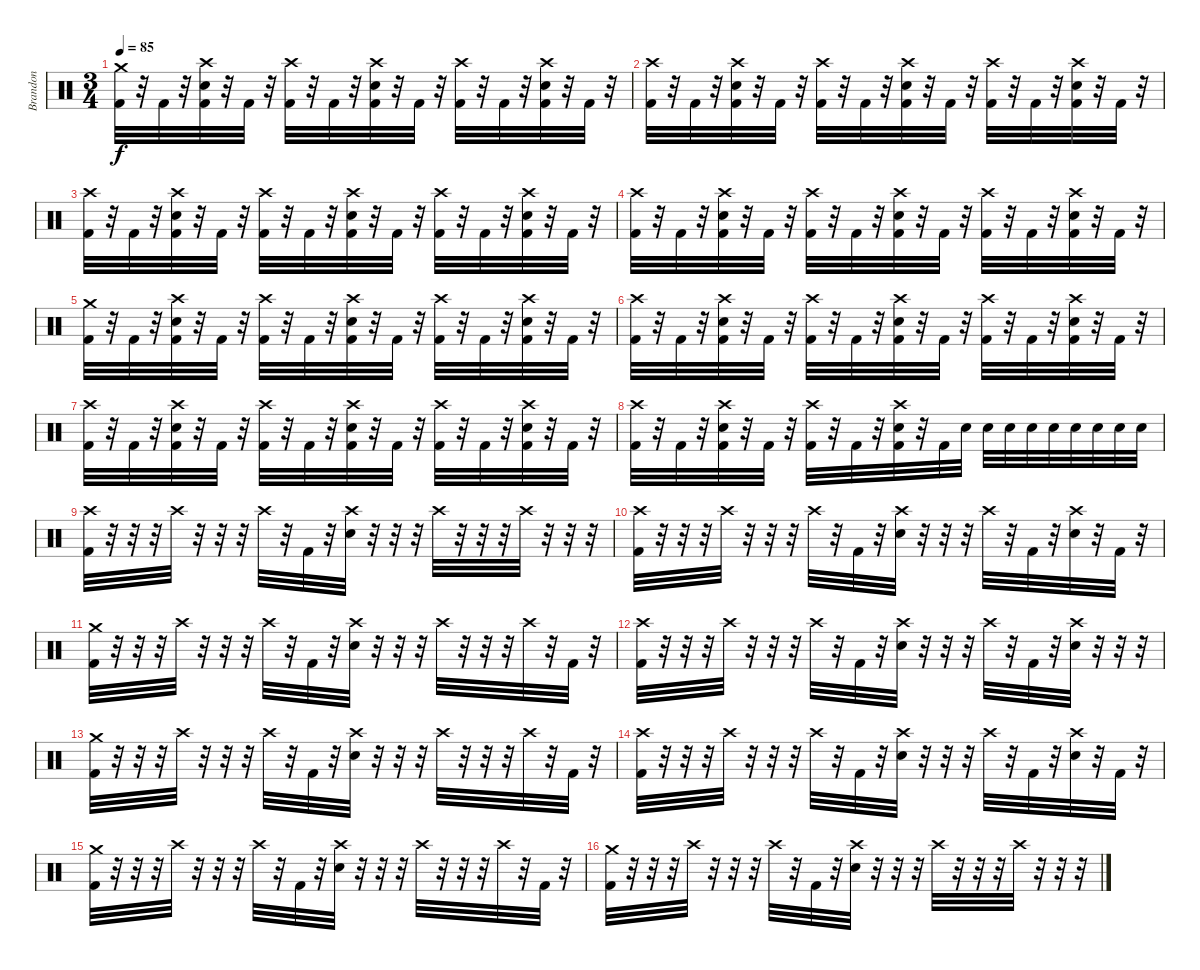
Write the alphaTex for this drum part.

\track ("Brandon" "Brandon") {instrument percussion}
\staff {score}
\articulation defaults
\ts (3 4)
\tempo 85
\clef neutral
\ks c
("Crash medium (hit)" "Kick (hit) 2").32{dy f} r.32 "Kick (hit) 2".32 r.32 ("Crash high (hit)" "Electric Snare (hit)" "Kick (hit) 2").32 r.32 "Kick (hit) 2".32 r.32 ("Crash high (hit)" "Kick (hit) 2").32 r.32 "Kick (hit) 2".32 r.32 ("Crash high (hit)" "Electric Snare (hit)" "Kick (hit) 2").32 r.32 "Kick (hit) 2".32 r.32 ("Crash high (hit)" "Kick (hit) 2").32 r.32 "Kick (hit) 2".32 r.32 ("Crash high (hit)" "Electric Snare (hit)" "Kick (hit) 2").32 r.32 "Kick (hit) 2".32 r.32 |
("Crash high (hit)" "Kick (hit) 2").32 r.32 "Kick (hit) 2".32 r.32 ("Crash high (hit)" "Electric Snare (hit)" "Kick (hit) 2").32 r.32 "Kick (hit) 2".32 r.32 ("Crash high (hit)" "Kick (hit) 2").32 r.32 "Kick (hit) 2".32 r.32 ("Crash high (hit)" "Electric Snare (hit)" "Kick (hit) 2").32 r.32 "Kick (hit) 2".32 r.32 ("Crash high (hit)" "Kick (hit) 2").32 r.32 "Kick (hit) 2".32 r.32 ("Crash high (hit)" "Electric Snare (hit)" "Kick (hit) 2").32 r.32 "Kick (hit) 2".32 r.32 |
("Crash high (hit)" "Kick (hit) 2").32 r.32 "Kick (hit) 2".32 r.32 ("Crash high (hit)" "Electric Snare (hit)" "Kick (hit) 2").32 r.32 "Kick (hit) 2".32 r.32 ("Crash high (hit)" "Kick (hit) 2").32 r.32 "Kick (hit) 2".32 r.32 ("Crash high (hit)" "Electric Snare (hit)" "Kick (hit) 2").32 r.32 "Kick (hit) 2".32 r.32 ("Crash high (hit)" "Kick (hit) 2").32 r.32 "Kick (hit) 2".32 r.32 ("Crash high (hit)" "Electric Snare (hit)" "Kick (hit) 2").32 r.32 "Kick (hit) 2".32 r.32 |
("Crash high (hit)" "Kick (hit) 2").32 r.32 "Kick (hit) 2".32 r.32 ("Crash high (hit)" "Electric Snare (hit)" "Kick (hit) 2").32 r.32 "Kick (hit) 2".32 r.32 ("Crash high (hit)" "Kick (hit) 2").32 r.32 "Kick (hit) 2".32 r.32 ("Crash high (hit)" "Electric Snare (hit)" "Kick (hit) 2").32 r.32 "Kick (hit) 2".32 r.32 ("Crash high (hit)" "Kick (hit) 2").32 r.32 "Kick (hit) 2".32 r.32 ("Crash high (hit)" "Electric Snare (hit)" "Kick (hit) 2").32 r.32 "Kick (hit) 2".32 r.32 |
("Crash medium (hit)" "Kick (hit) 2").32 r.32 "Kick (hit) 2".32 r.32 ("Crash high (hit)" "Electric Snare (hit)" "Kick (hit) 2").32 r.32 "Kick (hit) 2".32 r.32 ("Crash high (hit)" "Kick (hit) 2").32 r.32 "Kick (hit) 2".32 r.32 ("Crash high (hit)" "Electric Snare (hit)" "Kick (hit) 2").32 r.32 "Kick (hit) 2".32 r.32 ("Crash high (hit)" "Kick (hit) 2").32 r.32 "Kick (hit) 2".32 r.32 ("Crash high (hit)" "Electric Snare (hit)" "Kick (hit) 2").32 r.32 "Kick (hit) 2".32 r.32 |
("Crash high (hit)" "Kick (hit) 2").32 r.32 "Kick (hit) 2".32 r.32 ("Crash high (hit)" "Electric Snare (hit)" "Kick (hit) 2").32 r.32 "Kick (hit) 2".32 r.32 ("Crash high (hit)" "Kick (hit) 2").32 r.32 "Kick (hit) 2".32 r.32 ("Crash high (hit)" "Electric Snare (hit)" "Kick (hit) 2").32 r.32 "Kick (hit) 2".32 r.32 ("Crash high (hit)" "Kick (hit) 2").32 r.32 "Kick (hit) 2".32 r.32 ("Crash high (hit)" "Electric Snare (hit)" "Kick (hit) 2").32 r.32 "Kick (hit) 2".32 r.32 |
("Crash high (hit)" "Kick (hit) 2").32 r.32 "Kick (hit) 2".32 r.32 ("Crash high (hit)" "Electric Snare (hit)" "Kick (hit) 2").32 r.32 "Kick (hit) 2".32 r.32 ("Crash high (hit)" "Kick (hit) 2").32 r.32 "Kick (hit) 2".32 r.32 ("Crash high (hit)" "Electric Snare (hit)" "Kick (hit) 2").32 r.32 "Kick (hit) 2".32 r.32 ("Crash high (hit)" "Kick (hit) 2").32 r.32 "Kick (hit) 2".32 r.32 ("Crash high (hit)" "Electric Snare (hit)" "Kick (hit) 2").32 r.32 "Kick (hit) 2".32 r.32 |
("Crash high (hit)" "Kick (hit) 2").32 r.32 "Kick (hit) 2".32 r.32 ("Crash high (hit)" "Electric Snare (hit)" "Kick (hit) 2").32 r.32 "Kick (hit) 2".32 r.32 ("Crash high (hit)" "Kick (hit) 2").32 r.32 "Kick (hit) 2".32 r.32 ("Crash high (hit)" "Electric Snare (hit)" "Kick (hit) 2").32 r.32 "Kick (hit) 2".32 "Electric Snare (hit)".32 "Electric Snare (hit)".32 "Electric Snare (hit)".32 "Electric Snare (hit)".32 "Electric Snare (hit)".32 "Electric Snare (hit)".32 "Electric Snare (hit)".32 "Electric Snare (hit)".32 "Electric Snare (hit)".32 |
("Crash high (hit)" "Kick (hit) 2").32 r.32 r.32 r.32 "Crash high (hit)".32 r.32 r.32 r.32 "Crash high (hit)".32 r.32 "Kick (hit) 2".32 r.32 ("Crash high (hit)" "Electric Snare (hit)").32 r.32 r.32 r.32 "Crash high (hit)".32 r.32 r.32 r.32 "Crash high (hit)".32 r.32 r.32 r.32 |
("Crash high (hit)" "Kick (hit) 2").32 r.32 r.32 r.32 "Crash high (hit)".32 r.32 r.32 r.32 "Crash high (hit)".32 r.32 "Kick (hit) 2".32 r.32 ("Crash high (hit)" "Electric Snare (hit)").32 r.32 r.32 r.32 "Crash high (hit)".32 r.32 "Kick (hit) 2".32 r.32 ("Crash high (hit)" "Electric Snare (hit)").32 r.32 "Kick (hit) 2".32 r.32 |
("Crash medium (hit)" "Kick (hit) 2").32 r.32 r.32 r.32 "Crash high (hit)".32 r.32 r.32 r.32 "Crash high (hit)".32 r.32 "Kick (hit) 2".32 r.32 ("Crash high (hit)" "Electric Snare (hit)").32 r.32 r.32 r.32 "Crash high (hit)".32 r.32 r.32 r.32 "Crash high (hit)".32 r.32 "Kick (hit) 2".32 r.32 |
("Crash high (hit)" "Kick (hit) 2").32 r.32 r.32 r.32 "Crash high (hit)".32 r.32 r.32 r.32 "Crash high (hit)".32 r.32 "Kick (hit) 2".32 r.32 ("Crash high (hit)" "Electric Snare (hit)").32 r.32 r.32 r.32 "Crash high (hit)".32 r.32 "Kick (hit) 2".32 r.32 ("Crash high (hit)" "Electric Snare (hit)").32 r.32 r.32 r.32 |
("Crash medium (hit)" "Kick (hit) 2").32 r.32 r.32 r.32 "Crash high (hit)".32 r.32 r.32 r.32 "Crash high (hit)".32 r.32 "Kick (hit) 2".32 r.32 ("Crash high (hit)" "Electric Snare (hit)").32 r.32 r.32 r.32 "Crash high (hit)".32 r.32 r.32 r.32 "Crash high (hit)".32 r.32 "Kick (hit) 2".32 r.32 |
("Crash high (hit)" "Kick (hit) 2").32 r.32 r.32 r.32 "Crash high (hit)".32 r.32 r.32 r.32 "Crash high (hit)".32 r.32 "Kick (hit) 2".32 r.32 ("Crash high (hit)" "Electric Snare (hit)").32 r.32 r.32 r.32 "Crash high (hit)".32 r.32 "Kick (hit) 2".32 r.32 ("Crash high (hit)" "Electric Snare (hit)").32 r.32 "Kick (hit) 2".32 r.32 |
("Crash medium (hit)" "Kick (hit) 2").32 r.32 r.32 r.32 "Crash high (hit)".32 r.32 r.32 r.32 "Crash high (hit)".32 r.32 "Kick (hit) 2".32 r.32 ("Crash high (hit)" "Electric Snare (hit)").32 r.32 r.32 r.32 "Crash high (hit)".32 r.32 r.32 r.32 "Crash high (hit)".32 r.32 "Kick (hit) 2".32 r.32 |
("Crash medium (hit)" "Kick (hit) 2").32 r.32 r.32 r.32 "Crash high (hit)".32 r.32 r.32 r.32 "Crash high (hit)".32 r.32 "Kick (hit) 2".32 r.32 ("Crash high (hit)" "Electric Snare (hit)").32 r.32 r.32 r.32 "Crash high (hit)".32 r.32 r.32 r.32 "Crash high (hit)".32 r.32 r.32 r.32
